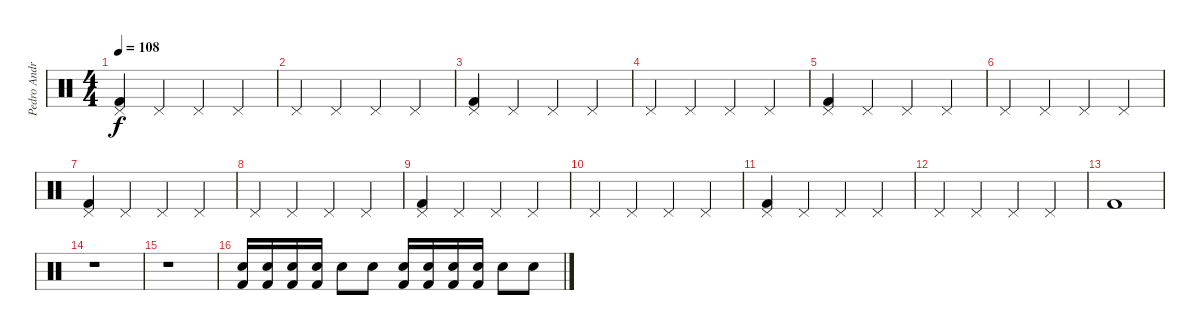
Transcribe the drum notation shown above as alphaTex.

\track ("Pedro Andreu" "Pedro Andr") {instrument percussion}
\staff {score}
\articulation defaults
\ts (4 4)
\tempo 108
\clef neutral
\ks c
("Kick (hit) 2" "Pedal Hi-Hat (hit)").4{dy f} "Pedal Hi-Hat (hit)".4 "Pedal Hi-Hat (hit)".4 "Pedal Hi-Hat (hit)".4 |
"Pedal Hi-Hat (hit)".4 "Pedal Hi-Hat (hit)".4 "Pedal Hi-Hat (hit)".4 "Pedal Hi-Hat (hit)".4 |
("Kick (hit) 2" "Pedal Hi-Hat (hit)").4 "Pedal Hi-Hat (hit)".4 "Pedal Hi-Hat (hit)".4 "Pedal Hi-Hat (hit)".4 |
"Pedal Hi-Hat (hit)".4 "Pedal Hi-Hat (hit)".4 "Pedal Hi-Hat (hit)".4 "Pedal Hi-Hat (hit)".4 |
("Kick (hit) 2" "Pedal Hi-Hat (hit)").4 "Pedal Hi-Hat (hit)".4 "Pedal Hi-Hat (hit)".4 "Pedal Hi-Hat (hit)".4 |
"Pedal Hi-Hat (hit)".4 "Pedal Hi-Hat (hit)".4 "Pedal Hi-Hat (hit)".4 "Pedal Hi-Hat (hit)".4 |
("Kick (hit) 2" "Pedal Hi-Hat (hit)").4 "Pedal Hi-Hat (hit)".4 "Pedal Hi-Hat (hit)".4 "Pedal Hi-Hat (hit)".4 |
"Pedal Hi-Hat (hit)".4 "Pedal Hi-Hat (hit)".4 "Pedal Hi-Hat (hit)".4 "Pedal Hi-Hat (hit)".4 |
("Kick (hit) 2" "Pedal Hi-Hat (hit)").4 "Pedal Hi-Hat (hit)".4 "Pedal Hi-Hat (hit)".4 "Pedal Hi-Hat (hit)".4 |
"Pedal Hi-Hat (hit)".4 "Pedal Hi-Hat (hit)".4 "Pedal Hi-Hat (hit)".4 "Pedal Hi-Hat (hit)".4 |
("Kick (hit) 2" "Pedal Hi-Hat (hit)").4 "Pedal Hi-Hat (hit)".4 "Pedal Hi-Hat (hit)".4 "Pedal Hi-Hat (hit)".4 |
"Pedal Hi-Hat (hit)".4 "Pedal Hi-Hat (hit)".4 "Pedal Hi-Hat (hit)".4 "Pedal Hi-Hat (hit)".4 |
"Kick (hit) 2".1 |
r.1 |
r.1 |
("Snare (hit) 2" "Kick (hit) 2").16 ("Snare (hit) 2" "Kick (hit) 2").16 ("Snare (hit) 2" "Kick (hit) 2").16 ("Snare (hit) 2" "Kick (hit) 2").16 "Snare (hit) 2".8 "Snare (hit) 2".8 ("Snare (hit) 2" "Kick (hit) 2").16 ("Snare (hit) 2" "Kick (hit) 2").16 ("Snare (hit) 2" "Kick (hit) 2").16 ("Snare (hit) 2" "Kick (hit) 2").16 "Snare (hit) 2".8 "Snare (hit) 2".8
